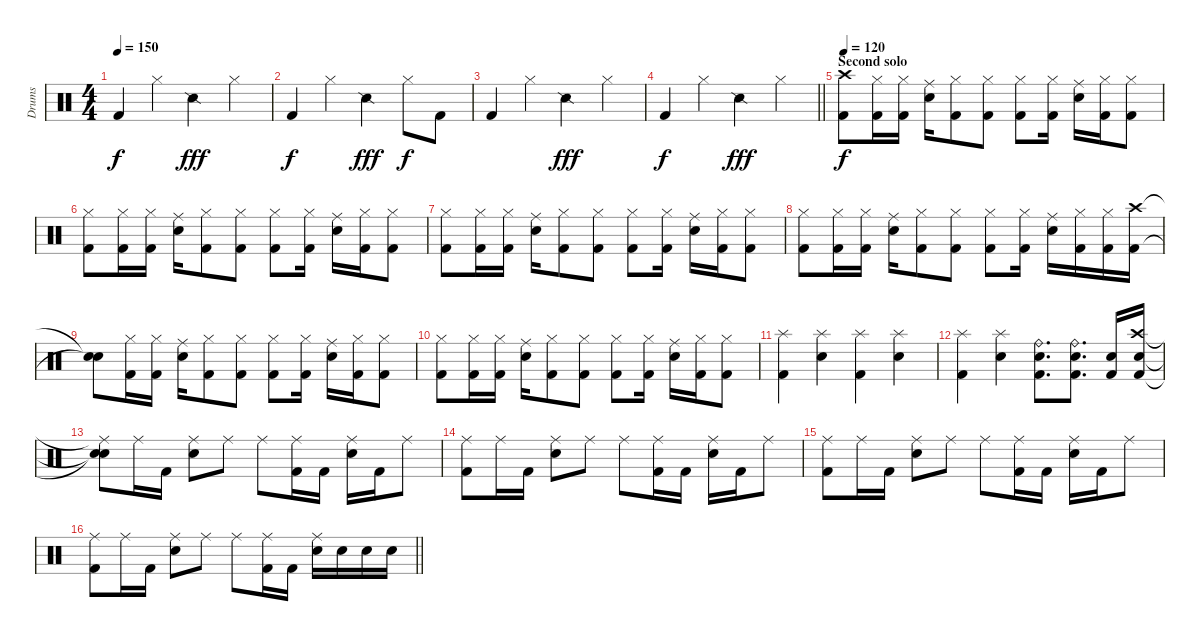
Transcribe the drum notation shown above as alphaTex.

\track ("Drums" "Drums") {instrument percussion}
\staff {score}
\articulation defaults
\ts (4 4)
\tempo 150
\clef neutral
\ks c "Kick (hit) 2".4{dy f} "Hi-Hat (closed)".4 "Snare (side stick) 2".4{dy fff} "Hi-Hat (closed)".4
|
"Kick (hit) 2".4{dy f} "Hi-Hat (closed)".4 "Snare (side stick) 2".4{dy fff} "Hi-Hat (closed)".8{dy f} "Kick (hit) 2".8 |
"Kick (hit) 2".4 "Hi-Hat (closed)".4 "Snare (side stick) 2".4{dy fff} "Hi-Hat (closed)".4 |
\barLineRight lightlight "Kick (hit) 2".4{dy f} "Hi-Hat (closed)".4 "Snare (side stick) 2".4{dy fff} "Hi-Hat (closed)".4
|
\section ("" "Second solo")
\tempo 120
("Crash high (hit)" "Kick (hit) 2").8{dy f} ("Hi-Hat (closed)" "Kick (hit) 2").16 ("Hi-Hat (closed)" "Kick (hit) 2").16 ("Ride (middle)" "Snare (hit) 2").16 ("Hi-Hat (closed)" "Kick (hit) 2").8 ("Hi-Hat (closed)" "Kick (hit) 2").8 ("Hi-Hat (closed)" "Kick (hit) 2").8 ("Hi-Hat (closed)" "Kick (hit) 2").16 ("Ride (middle)" "Snare (hit) 2").16 ("Hi-Hat (closed)" "Kick (hit) 2").16 ("Hi-Hat (closed)" "Kick (hit) 2").8 |
("Hi-Hat (closed)" "Kick (hit) 2").8 ("Hi-Hat (closed)" "Kick (hit) 2").16 ("Hi-Hat (closed)" "Kick (hit) 2").16 ("Ride (middle)" "Snare (hit) 2").16 ("Hi-Hat (closed)" "Kick (hit) 2").8 ("Hi-Hat (closed)" "Kick (hit) 2").8 ("Hi-Hat (closed)" "Kick (hit) 2").8 ("Hi-Hat (closed)" "Kick (hit) 2").16 ("Ride (middle)" "Snare (hit) 2").16 ("Hi-Hat (closed)" "Kick (hit) 2").16 ("Hi-Hat (closed)" "Kick (hit) 2").8 |
("Hi-Hat (closed)" "Kick (hit) 2").8 ("Hi-Hat (closed)" "Kick (hit) 2").16 ("Hi-Hat (closed)" "Kick (hit) 2").16 ("Ride (middle)" "Snare (hit) 2").16 ("Hi-Hat (closed)" "Kick (hit) 2").8 ("Hi-Hat (closed)" "Kick (hit) 2").8 ("Hi-Hat (closed)" "Kick (hit) 2").8 ("Hi-Hat (closed)" "Kick (hit) 2").16 ("Ride (middle)" "Snare (hit) 2").16 ("Hi-Hat (closed)" "Kick (hit) 2").16 ("Hi-Hat (closed)" "Kick (hit) 2").8 |
("Hi-Hat (closed)" "Kick (hit) 2").8 ("Hi-Hat (closed)" "Kick (hit) 2").16 ("Hi-Hat (closed)" "Kick (hit) 2").16 ("Ride (middle)" "Snare (hit) 2").16 ("Hi-Hat (closed)" "Kick (hit) 2").8 ("Hi-Hat (closed)" "Kick (hit) 2").8 ("Hi-Hat (closed)" "Kick (hit) 2").8 ("Hi-Hat (closed)" "Kick (hit) 2").16 ("Ride (middle)" "Snare (hit) 2").16 ("Hi-Hat (closed)" "Kick (hit) 2").16 ("Hi-Hat (closed)" "Kick (hit) 2").16 ("Crash high (hit)" "Kick (hit) 2").16 |
("Snare (hit)"{t} "Snare (hit)"{t}).8 ("Hi-Hat (closed)" "Kick (hit) 2").16 ("Hi-Hat (closed)" "Kick (hit) 2").16 ("Ride (middle)" "Snare (hit) 2").16 ("Hi-Hat (closed)" "Kick (hit) 2").8 ("Hi-Hat (closed)" "Kick (hit) 2").8 ("Hi-Hat (closed)" "Kick (hit) 2").8 ("Hi-Hat (closed)" "Kick (hit) 2").16 ("Ride (middle)" "Snare (hit) 2").16 ("Hi-Hat (closed)" "Kick (hit) 2").16 ("Hi-Hat (closed)" "Kick (hit) 2").8 |
("Hi-Hat (closed)" "Kick (hit) 2").8 ("Hi-Hat (closed)" "Kick (hit) 2").16 ("Hi-Hat (closed)" "Kick (hit) 2").16 ("Ride (middle)" "Snare (hit) 2").16 ("Hi-Hat (closed)" "Kick (hit) 2").8 ("Hi-Hat (closed)" "Kick (hit) 2").8 ("Hi-Hat (closed)" "Kick (hit) 2").8 ("Hi-Hat (closed)" "Kick (hit) 2").16 ("Ride (middle)" "Snare (hit) 2").16 ("Hi-Hat (closed)" "Kick (hit) 2").16 ("Hi-Hat (closed)" "Kick (hit) 2").8 |
("Splash (hit)" "Kick (hit) 2").4 ("Splash (hit)" "Snare (hit) 2").4 ("Splash (hit)" "Kick (hit) 2").4 ("Splash (hit)" "Snare (hit) 2").4 |
("Splash (hit)" "Kick (hit) 2").4 ("Splash (hit)" "Snare (hit) 2").4 ("Ride (bell)" "Snare (hit) 2" "Kick (hit) 2").8{d} ("Ride (bell)" "Snare (hit) 2" "Kick (hit) 2").8{d} ("Snare (hit) 2" "Kick (hit) 2").16 ("Crash high (hit)" "Snare (hit) 2" "Kick (hit) 2").16 |
("Ride (middle)"{t} "Snare (hit)"{t} "Snare (hit)"{t}).8 "Ride (middle)".16 "Kick (hit) 2".16 ("Ride (middle)" "Snare (hit) 2").8 "Ride (middle)".8 "Ride (middle)".8 ("Ride (middle)" "Kick (hit) 2").16 "Kick (hit) 2".16 ("Ride (middle)" "Snare (hit) 2").16 "Kick (hit) 2".16 "Ride (middle)".8 |
("Ride (middle)" "Kick (hit) 2").8 "Ride (middle)".16 "Kick (hit) 2".16 ("Ride (middle)" "Snare (hit) 2").8 "Ride (middle)".8 "Ride (middle)".8 ("Ride (middle)" "Kick (hit) 2").16 "Kick (hit) 2".16 ("Ride (middle)" "Snare (hit) 2").16 "Kick (hit) 2".16 "Ride (middle)".8 |
("Ride (middle)" "Kick (hit) 2").8 "Ride (middle)".16 "Kick (hit) 2".16 ("Ride (middle)" "Snare (hit) 2").8 "Ride (middle)".8 "Ride (middle)".8 ("Ride (middle)" "Kick (hit) 2").16 "Kick (hit) 2".16 ("Ride (middle)" "Snare (hit) 2").16 "Kick (hit) 2".16 "Ride (middle)".8 |
\barLineRight lightlight
("Ride (middle)" "Kick (hit) 2").8 "Ride (middle)".16 "Kick (hit) 2".16 ("Ride (middle)" "Snare (hit) 2").8 "Ride (middle)".8 "Ride (middle)".8 ("Ride (middle)" "Kick (hit) 2").16 "Kick (hit) 2".16 ("Ride (middle)" "Snare (hit) 2").16 "Electric Snare (hit)".16 "Electric Snare (hit)".16 "Electric Snare (hit)".16
